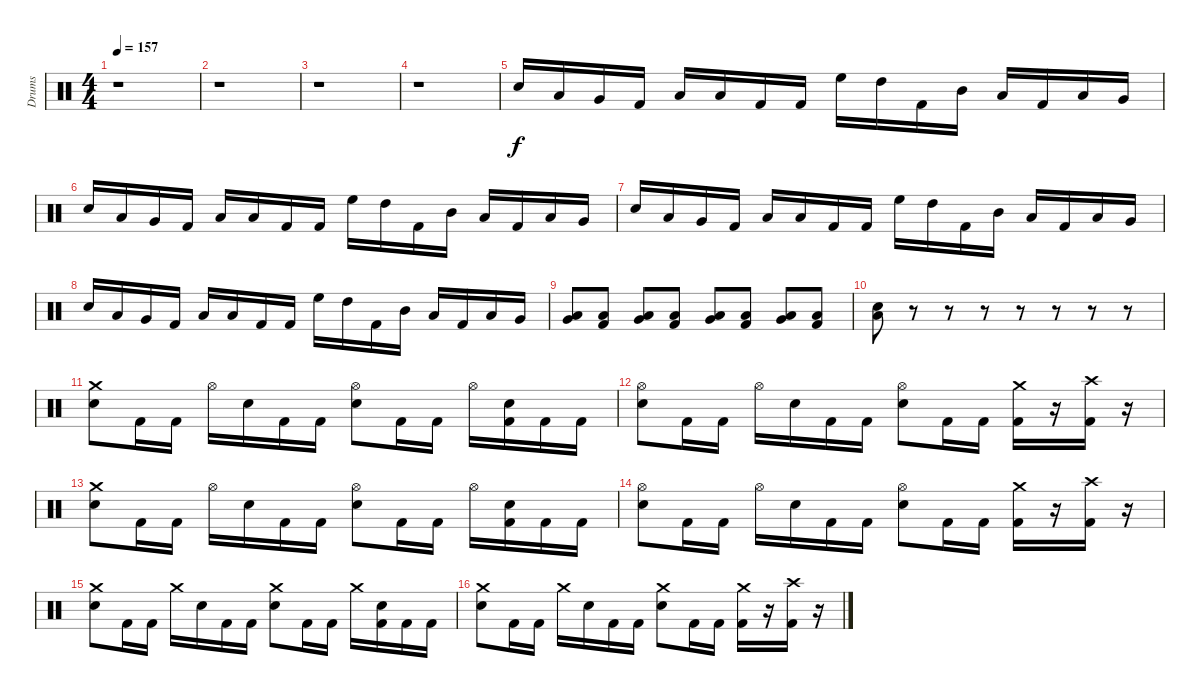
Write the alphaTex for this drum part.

\track ("Drums" "Drums") {instrument percussion}
\staff {score}
\articulation defaults
\ts (4 4)
\tempo 157
\clef neutral
\ks c
r.1{dy f} |
r.1 |
r.1 |
r.1 |
"Electric Snare (hit)".16 "Low Tom (hit)".16 "Very Low Tom (hit)".16 "Kick (hit) 2".16 "Low Floor Tom (hit)".16 "Low Floor Tom (hit)".16 "Kick (hit) 2".16 "Kick (hit) 2".16 "High Floor Tom (hit)".16 "High Tom (hit)".16 "Kick (hit) 2".16 "Mid Tom (hit)".16 "Low Tom (hit)".16 "Kick (hit) 2".16 "Low Tom (hit)".16 "Very Low Tom (hit)".16 |
"Electric Snare (hit)".16 "Low Tom (hit)".16 "Very Low Tom (hit)".16 "Kick (hit) 2".16 "Low Floor Tom (hit)".16 "Low Floor Tom (hit)".16 "Kick (hit) 2".16 "Kick (hit) 2".16 "High Floor Tom (hit)".16 "High Tom (hit)".16 "Kick (hit) 2".16 "Mid Tom (hit)".16 "Low Tom (hit)".16 "Kick (hit) 2".16 "Low Tom (hit)".16 "Very Low Tom (hit)".16 |
"Electric Snare (hit)".16 "Low Tom (hit)".16 "Very Low Tom (hit)".16 "Kick (hit) 2".16 "Low Floor Tom (hit)".16 "Low Floor Tom (hit)".16 "Kick (hit) 2".16 "Kick (hit) 2".16 "High Floor Tom (hit)".16 "High Tom (hit)".16 "Kick (hit) 2".16 "Mid Tom (hit)".16 "Low Tom (hit)".16 "Kick (hit) 2".16 "Low Tom (hit)".16 "Very Low Tom (hit)".16 |
"Electric Snare (hit)".16 "Low Tom (hit)".16 "Very Low Tom (hit)".16 "Kick (hit) 2".16 "Low Floor Tom (hit)".16 "Low Floor Tom (hit)".16 "Kick (hit) 2".16 "Kick (hit) 2".16 "High Floor Tom (hit)".16 "High Tom (hit)".16 "Kick (hit) 2".16 "Mid Tom (hit)".16 "Low Tom (hit)".16 "Kick (hit) 2".16 "Low Tom (hit)".16 "Very Low Tom (hit)".16 |
("Very Low Tom (hit)" "Low Floor Tom (hit)").8 ("Low Floor Tom (hit)" "Kick (hit) 2").8 ("Very Low Tom (hit)" "Low Floor Tom (hit)").8 ("Low Floor Tom (hit)" "Kick (hit) 2").8 ("Very Low Tom (hit)" "Low Floor Tom (hit)").8 ("Low Floor Tom (hit)" "Kick (hit) 2").8 ("Very Low Tom (hit)" "Low Floor Tom (hit)").8 ("Low Floor Tom (hit)" "Kick (hit) 2").8 |
("Low Floor Tom (hit)" "Electric Snare (hit)").8 r.8 r.8 r.8 r.8 r.8 r.8 r.8 |
("Crash medium (hit)" "Electric Snare (hit)").8 "Kick (hit) 2".16 "Kick (hit) 2".16 "Hi-Hat (open)".16 "Electric Snare (hit)".16 "Kick (hit) 2".16 "Kick (hit) 2".16 ("Hi-Hat (open)" "Electric Snare (hit)").8 "Kick (hit) 2".16 "Kick (hit) 2".16 "Hi-Hat (open)".16 ("Electric Snare (hit)" "Kick (hit) 2").16 "Kick (hit) 2".16 "Kick (hit) 2".16 |
("Hi-Hat (open)" "Electric Snare (hit)").8 "Kick (hit) 2".16 "Kick (hit) 2".16 "Hi-Hat (open)".16 "Electric Snare (hit)".16 "Kick (hit) 2".16 "Kick (hit) 2".16 ("Hi-Hat (open)" "Electric Snare (hit)").8 "Kick (hit) 2".16 "Kick (hit) 2".16 ("Crash medium (hit)" "Kick (hit) 2").16 r.16 ("Crash high (hit)" "Kick (hit) 2").16 r.16 |
("Crash medium (hit)" "Electric Snare (hit)").8 "Kick (hit) 2".16 "Kick (hit) 2".16 "Hi-Hat (open)".16 "Electric Snare (hit)".16 "Kick (hit) 2".16 "Kick (hit) 2".16 ("Hi-Hat (open)" "Electric Snare (hit)").8 "Kick (hit) 2".16 "Kick (hit) 2".16 "Hi-Hat (open)".16 ("Electric Snare (hit)" "Kick (hit) 2").16 "Kick (hit) 2".16 "Kick (hit) 2".16 |
("Hi-Hat (open)" "Electric Snare (hit)").8 "Kick (hit) 2".16 "Kick (hit) 2".16 "Hi-Hat (open)".16 "Electric Snare (hit)".16 "Kick (hit) 2".16 "Kick (hit) 2".16 ("Hi-Hat (open)" "Electric Snare (hit)").8 "Kick (hit) 2".16 "Kick (hit) 2".16 ("Crash medium (hit)" "Kick (hit) 2").16 r.16 ("Crash high (hit)" "Kick (hit) 2").16 r.16 |
("Crash medium (hit)" "Electric Snare (hit)").8 "Kick (hit) 2".16 "Kick (hit) 2".16 "Crash medium (hit)".16 "Electric Snare (hit)".16 "Kick (hit) 2".16 "Kick (hit) 2".16 ("Crash medium (hit)" "Electric Snare (hit)").8 "Kick (hit) 2".16 "Kick (hit) 2".16 "Crash medium (hit)".16 ("Electric Snare (hit)" "Kick (hit) 2").16 "Kick (hit) 2".16 "Kick (hit) 2".16 |
("Crash medium (hit)" "Electric Snare (hit)").8 "Kick (hit) 2".16 "Kick (hit) 2".16 "Crash medium (hit)".16 "Electric Snare (hit)".16 "Kick (hit) 2".16 "Kick (hit) 2".16 ("Crash medium (hit)" "Electric Snare (hit)").8 "Kick (hit) 2".16 "Kick (hit) 2".16 ("Crash medium (hit)" "Kick (hit) 2").16 r.16 ("Crash high (hit)" "Kick (hit) 2").16 r.16
